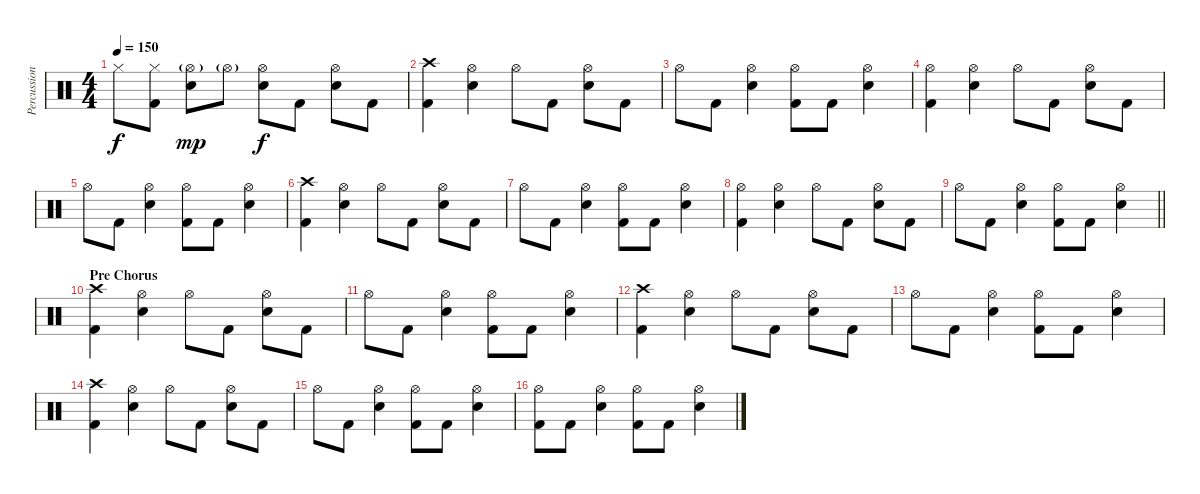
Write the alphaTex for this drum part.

\track ("Percussion" "Percussion") {instrument percussion}
\staff {score}
\articulation defaults
\ts (4 4)
\tempo 150
\clef neutral
\ks c "Hi-Hat (closed)".8{dy f}
("Hi-Hat (closed)" "Kick (hit) 2").8 ("Hi-Hat (open)"{g} "Electric Snare (hit)").8{dy mp} "Hi-Hat (open)"{g}.8 ("Hi-Hat (open)" "Electric Snare (hit)").8{dy f} "Kick (hit) 2".8 ("Hi-Hat (open)" "Electric Snare (hit)").8 "Kick (hit) 2".8 |
("Crash high (hit)" "Kick (hit) 2").4 ("Hi-Hat (open)" "Electric Snare (hit)").4 "Hi-Hat (open)".8 "Kick (hit) 2".8 ("Hi-Hat (open)" "Electric Snare (hit)").8 "Kick (hit) 2".8 |
"Hi-Hat (open)".8 "Kick (hit) 2".8 ("Hi-Hat (open)" "Electric Snare (hit)").4 ("Hi-Hat (open)" "Kick (hit) 2").8 "Kick (hit) 2".8 ("Hi-Hat (open)" "Electric Snare (hit)").4 |
("Hi-Hat (open)" "Kick (hit) 2").4 ("Hi-Hat (open)" "Electric Snare (hit)").4 "Hi-Hat (open)".8 "Kick (hit) 2".8 ("Hi-Hat (open)" "Electric Snare (hit)").8 "Kick (hit) 2".8 |
"Hi-Hat (open)".8 "Kick (hit) 2".8 ("Hi-Hat (open)" "Electric Snare (hit)").4 ("Hi-Hat (open)" "Kick (hit) 2").8 "Kick (hit) 2".8 ("Hi-Hat (open)" "Electric Snare (hit)").4 |
("Crash high (hit)" "Kick (hit) 2").4 ("Hi-Hat (open)" "Electric Snare (hit)").4 "Hi-Hat (open)".8 "Kick (hit) 2".8 ("Hi-Hat (open)" "Electric Snare (hit)").8 "Kick (hit) 2".8 |
"Hi-Hat (open)".8 "Kick (hit) 2".8 ("Hi-Hat (open)" "Electric Snare (hit)").4 ("Hi-Hat (open)" "Kick (hit) 2").8 "Kick (hit) 2".8 ("Hi-Hat (open)" "Electric Snare (hit)").4 |
("Hi-Hat (open)" "Kick (hit) 2").4 ("Hi-Hat (open)" "Electric Snare (hit)").4 "Hi-Hat (open)".8 "Kick (hit) 2".8 ("Hi-Hat (open)" "Electric Snare (hit)").8 "Kick (hit) 2".8 |
\barLineRight lightlight "Hi-Hat (open)".8 "Kick (hit) 2".8
("Hi-Hat (open)" "Electric Snare (hit)").4 ("Hi-Hat (open)" "Kick (hit) 2").8 "Kick (hit) 2".8 ("Hi-Hat (open)" "Electric Snare (hit)").4 |
\section ("" "Pre Chorus")
("Crash high (hit)" "Kick (hit) 2").4 ("Hi-Hat (open)" "Electric Snare (hit)").4 "Hi-Hat (open)".8 "Kick (hit) 2".8 ("Hi-Hat (open)" "Electric Snare (hit)").8 "Kick (hit) 2".8 |
"Hi-Hat (open)".8 "Kick (hit) 2".8 ("Hi-Hat (open)" "Electric Snare (hit)").4 ("Hi-Hat (open)" "Kick (hit) 2").8 "Kick (hit) 2".8 ("Hi-Hat (open)" "Electric Snare (hit)").4 |
("Crash high (hit)" "Kick (hit) 2").4 ("Hi-Hat (open)" "Electric Snare (hit)").4 "Hi-Hat (open)".8 "Kick (hit) 2".8 ("Hi-Hat (open)" "Electric Snare (hit)").8 "Kick (hit) 2".8 |
"Hi-Hat (open)".8 "Kick (hit) 2".8 ("Hi-Hat (open)" "Electric Snare (hit)").4 ("Hi-Hat (open)" "Kick (hit) 2").8 "Kick (hit) 2".8 ("Hi-Hat (open)" "Electric Snare (hit)").4 |
("Crash high (hit)" "Kick (hit) 2").4 ("Hi-Hat (open)" "Electric Snare (hit)").4 "Hi-Hat (open)".8 "Kick (hit) 2".8 ("Hi-Hat (open)" "Electric Snare (hit)").8 "Kick (hit) 2".8 |
"Hi-Hat (open)".8 "Kick (hit) 2".8 ("Hi-Hat (open)" "Electric Snare (hit)").4 ("Hi-Hat (open)" "Kick (hit) 2").8 "Kick (hit) 2".8 ("Hi-Hat (open)" "Electric Snare (hit)").4 |
("Hi-Hat (open)" "Kick (hit) 2").8 "Kick (hit) 2".8 ("Hi-Hat (open)" "Electric Snare (hit)").4 ("Hi-Hat (open)" "Kick (hit) 2").8 "Kick (hit) 2".8 ("Hi-Hat (open)" "Electric Snare (hit)").4
